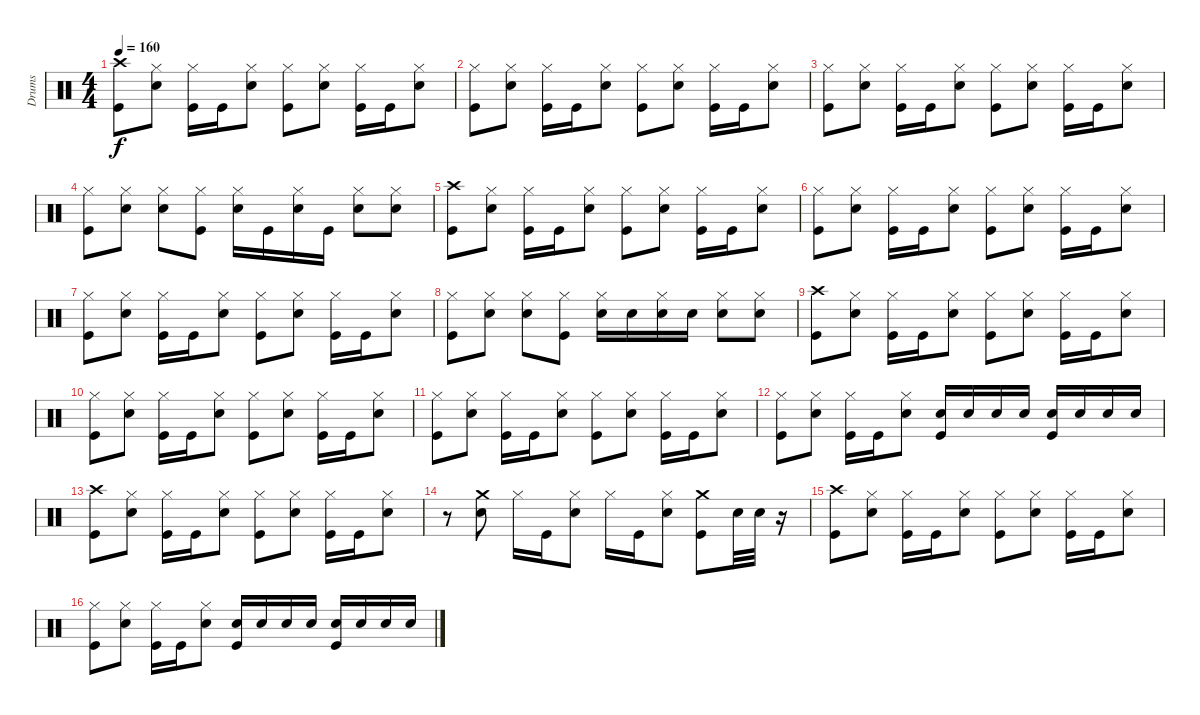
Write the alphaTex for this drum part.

\track ("Drums" "Drums") {instrument percussion}
\staff {score}
\articulation defaults
\ts (4 4)
\tempo 160
\clef neutral
\ks c
("Crash high (hit)" "Kick (hit)").8{dy f} ("Hi-Hat (closed)" "Electric Snare (hit)").8 ("Hi-Hat (closed)" "Kick (hit)").16 "Kick (hit)".16 ("Hi-Hat (closed)" "Electric Snare (hit)").8 ("Hi-Hat (closed)" "Kick (hit)").8 ("Hi-Hat (closed)" "Electric Snare (hit)").8 ("Hi-Hat (closed)" "Kick (hit)").16 "Kick (hit)".16 ("Hi-Hat (closed)" "Electric Snare (hit)").8 |
("Hi-Hat (closed)" "Kick (hit)").8 ("Hi-Hat (closed)" "Electric Snare (hit)").8 ("Hi-Hat (closed)" "Kick (hit)").16 "Kick (hit)".16 ("Hi-Hat (closed)" "Electric Snare (hit)").8 ("Hi-Hat (closed)" "Kick (hit)").8 ("Hi-Hat (closed)" "Electric Snare (hit)").8 ("Hi-Hat (closed)" "Kick (hit)").16 "Kick (hit)".16 ("Hi-Hat (closed)" "Electric Snare (hit)").8 |
("Hi-Hat (closed)" "Kick (hit)").8 ("Hi-Hat (closed)" "Electric Snare (hit)").8 ("Hi-Hat (closed)" "Kick (hit)").16 "Kick (hit)".16 ("Hi-Hat (closed)" "Electric Snare (hit)").8 ("Hi-Hat (closed)" "Kick (hit)").8 ("Hi-Hat (closed)" "Electric Snare (hit)").8 ("Hi-Hat (closed)" "Kick (hit)").16 "Kick (hit)".16 ("Hi-Hat (closed)" "Electric Snare (hit)").8 |
("Hi-Hat (closed)" "Kick (hit)").8 ("Hi-Hat (closed)" "Electric Snare (hit)").8 ("Hi-Hat (closed)" "Electric Snare (hit)").8 ("Hi-Hat (closed)" "Kick (hit)").8 ("Hi-Hat (closed)" "Electric Snare (hit)").16 "Kick (hit)".16 ("Hi-Hat (closed)" "Electric Snare (hit)").16 "Kick (hit)".16 ("Hi-Hat (closed)" "Electric Snare (hit)").8 ("Hi-Hat (closed)" "Electric Snare (hit)").8 |
("Crash high (hit)" "Kick (hit)").8 ("Hi-Hat (closed)" "Electric Snare (hit)").8 ("Hi-Hat (closed)" "Kick (hit)").16 "Kick (hit)".16 ("Hi-Hat (closed)" "Electric Snare (hit)").8 ("Hi-Hat (closed)" "Kick (hit)").8 ("Hi-Hat (closed)" "Electric Snare (hit)").8 ("Hi-Hat (closed)" "Kick (hit)").16 "Kick (hit)".16 ("Hi-Hat (closed)" "Electric Snare (hit)").8 |
("Hi-Hat (closed)" "Kick (hit)").8 ("Hi-Hat (closed)" "Electric Snare (hit)").8 ("Hi-Hat (closed)" "Kick (hit)").16 "Kick (hit)".16 ("Hi-Hat (closed)" "Electric Snare (hit)").8 ("Hi-Hat (closed)" "Kick (hit)").8 ("Hi-Hat (closed)" "Electric Snare (hit)").8 ("Hi-Hat (closed)" "Kick (hit)").16 "Kick (hit)".16 ("Hi-Hat (closed)" "Electric Snare (hit)").8 |
("Hi-Hat (closed)" "Kick (hit)").8 ("Hi-Hat (closed)" "Electric Snare (hit)").8 ("Hi-Hat (closed)" "Kick (hit)").16 "Kick (hit)".16 ("Hi-Hat (closed)" "Electric Snare (hit)").8 ("Hi-Hat (closed)" "Kick (hit)").8 ("Hi-Hat (closed)" "Electric Snare (hit)").8 ("Hi-Hat (closed)" "Kick (hit)").16 "Kick (hit)".16 ("Hi-Hat (closed)" "Electric Snare (hit)").8 |
("Hi-Hat (closed)" "Kick (hit)").8 ("Hi-Hat (closed)" "Electric Snare (hit)").8 ("Hi-Hat (closed)" "Electric Snare (hit)").8 ("Hi-Hat (closed)" "Kick (hit)").8 ("Hi-Hat (closed)" "Electric Snare (hit)").16 "Electric Snare (hit)".16 ("Hi-Hat (closed)" "Electric Snare (hit)").16 "Electric Snare (hit)".16 ("Hi-Hat (closed)" "Electric Snare (hit)").8 ("Hi-Hat (closed)" "Electric Snare (hit)").8 |
("Crash high (hit)" "Kick (hit)").8 ("Hi-Hat (closed)" "Electric Snare (hit)").8 ("Hi-Hat (closed)" "Kick (hit)").16 "Kick (hit)".16 ("Hi-Hat (closed)" "Electric Snare (hit)").8 ("Hi-Hat (closed)" "Kick (hit)").8 ("Hi-Hat (closed)" "Electric Snare (hit)").8 ("Hi-Hat (closed)" "Kick (hit)").16 "Kick (hit)".16 ("Hi-Hat (closed)" "Electric Snare (hit)").8 |
("Hi-Hat (closed)" "Kick (hit)").8 ("Hi-Hat (closed)" "Electric Snare (hit)").8 ("Hi-Hat (closed)" "Kick (hit)").16 "Kick (hit)".16 ("Hi-Hat (closed)" "Electric Snare (hit)").8 ("Hi-Hat (closed)" "Kick (hit)").8 ("Hi-Hat (closed)" "Electric Snare (hit)").8 ("Hi-Hat (closed)" "Kick (hit)").16 "Kick (hit)".16 ("Hi-Hat (closed)" "Electric Snare (hit)").8 |
("Hi-Hat (closed)" "Kick (hit)").8 ("Hi-Hat (closed)" "Electric Snare (hit)").8 ("Hi-Hat (closed)" "Kick (hit)").16 "Kick (hit)".16 ("Hi-Hat (closed)" "Electric Snare (hit)").8 ("Hi-Hat (closed)" "Kick (hit)").8 ("Hi-Hat (closed)" "Electric Snare (hit)").8 ("Hi-Hat (closed)" "Kick (hit)").16 "Kick (hit)".16 ("Hi-Hat (closed)" "Electric Snare (hit)").8 |
("Hi-Hat (closed)" "Kick (hit)").8 ("Hi-Hat (closed)" "Electric Snare (hit)").8 ("Hi-Hat (closed)" "Kick (hit)").16 "Kick (hit)".16 ("Hi-Hat (closed)" "Electric Snare (hit)").8 ("Electric Snare (hit)" "Kick (hit)").16 "Electric Snare (hit)".16 "Electric Snare (hit)".16 "Electric Snare (hit)".16 ("Electric Snare (hit)" "Kick (hit)").16 "Electric Snare (hit)".16 "Electric Snare (hit)".16 "Electric Snare (hit)".16 |
("Crash high (hit)" "Kick (hit)").8 ("Hi-Hat (closed)" "Electric Snare (hit)").8 ("Hi-Hat (closed)" "Kick (hit)").16 "Kick (hit)".16 ("Hi-Hat (closed)" "Electric Snare (hit)").8 ("Hi-Hat (closed)" "Kick (hit)").8 ("Hi-Hat (closed)" "Electric Snare (hit)").8 ("Hi-Hat (closed)" "Kick (hit)").16 "Kick (hit)".16 ("Hi-Hat (closed)" "Electric Snare (hit)").8 |
r.8 ("Crash medium (hit)" "Electric Snare (hit)").8 "Hi-Hat (closed)".16 "Kick (hit)".16 ("Hi-Hat (closed)" "Electric Snare (hit)").8 "Hi-Hat (closed)".16 "Kick (hit)".16 ("Hi-Hat (closed)" "Electric Snare (hit)").8 ("Crash medium (hit)" "Kick (hit)").8 "Electric Snare (hit)".32 "Electric Snare (hit)".32 r.16 |
("Crash high (hit)" "Kick (hit)").8 ("Hi-Hat (closed)" "Electric Snare (hit)").8 ("Hi-Hat (closed)" "Kick (hit)").16 "Kick (hit)".16 ("Hi-Hat (closed)" "Electric Snare (hit)").8 ("Hi-Hat (closed)" "Kick (hit)").8 ("Hi-Hat (closed)" "Electric Snare (hit)").8 ("Hi-Hat (closed)" "Kick (hit)").16 "Kick (hit)".16 ("Hi-Hat (closed)" "Electric Snare (hit)").8 |
("Hi-Hat (closed)" "Kick (hit)").8 ("Hi-Hat (closed)" "Electric Snare (hit)").8 ("Hi-Hat (closed)" "Kick (hit)").16 "Kick (hit)".16 ("Hi-Hat (closed)" "Electric Snare (hit)").8 ("Electric Snare (hit)" "Kick (hit)").16 "Electric Snare (hit)".16 "Electric Snare (hit)".16 "Electric Snare (hit)".16 ("Electric Snare (hit)" "Kick (hit)").16 "Electric Snare (hit)".16 "Electric Snare (hit)".16 "Electric Snare (hit)".16
